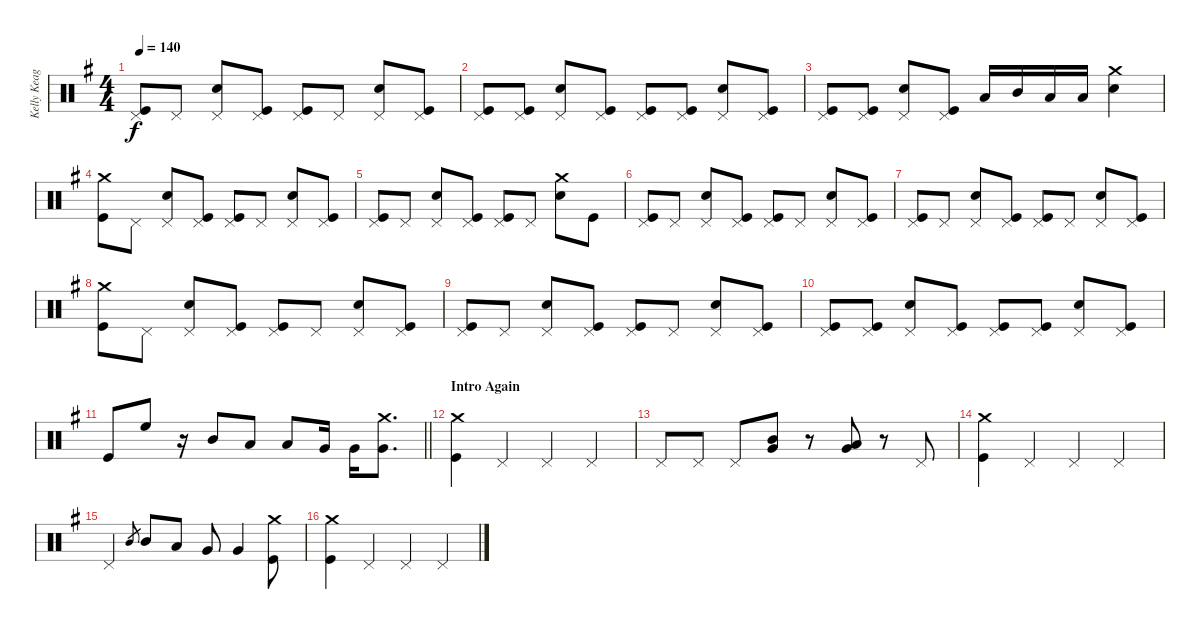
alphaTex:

\track ("Kelly Keagy" "Kelly Keag") {instrument percussion}
\staff {score}
\articulation defaults
\ts (4 4)
\tempo 140
\clef neutral
\ks g
("Pedal Hi-Hat (hit)" "Kick (hit)").8{dy f} "Pedal Hi-Hat (hit)".8 ("Pedal Hi-Hat (hit)" "Snare (hit) 2").8 ("Pedal Hi-Hat (hit)" "Kick (hit)").8 ("Pedal Hi-Hat (hit)" "Kick (hit)").8 "Pedal Hi-Hat (hit)".8 ("Pedal Hi-Hat (hit)" "Snare (hit) 2").8 ("Pedal Hi-Hat (hit)" "Kick (hit)").8 |
("Pedal Hi-Hat (hit)" "Kick (hit)").8 ("Pedal Hi-Hat (hit)" "Kick (hit)").8 ("Pedal Hi-Hat (hit)" "Snare (hit) 2").8 ("Pedal Hi-Hat (hit)" "Kick (hit)").8 ("Pedal Hi-Hat (hit)" "Kick (hit)").8 ("Pedal Hi-Hat (hit)" "Kick (hit)").8 ("Pedal Hi-Hat (hit)" "Snare (hit) 2").8 ("Pedal Hi-Hat (hit)" "Kick (hit)").8 |
("Pedal Hi-Hat (hit)" "Kick (hit)").8 ("Pedal Hi-Hat (hit)" "Kick (hit)").8 ("Pedal Hi-Hat (hit)" "Snare (hit) 2").8 ("Pedal Hi-Hat (hit)" "Kick (hit)").8 "Low Tom (hit)".16 "Mid Tom (hit)".16 "Low Tom (hit)".16 "Low Tom (hit)".16 ("Crash medium (hit)" "Snare (hit) 2").4 |
("Crash medium (hit)" "Kick (hit)").8 "Pedal Hi-Hat (hit)".8 ("Pedal Hi-Hat (hit)" "Snare (hit) 2").8 ("Pedal Hi-Hat (hit)" "Kick (hit)").8 ("Pedal Hi-Hat (hit)" "Kick (hit)").8 "Pedal Hi-Hat (hit)".8 ("Pedal Hi-Hat (hit)" "Snare (hit) 2").8 ("Pedal Hi-Hat (hit)" "Kick (hit)").8 |
("Pedal Hi-Hat (hit)" "Kick (hit)").8 "Pedal Hi-Hat (hit)".8 ("Pedal Hi-Hat (hit)" "Snare (hit) 2").8 ("Pedal Hi-Hat (hit)" "Kick (hit)").8 ("Pedal Hi-Hat (hit)" "Kick (hit)").8 "Pedal Hi-Hat (hit)".8 ("Crash medium (hit)" "Snare (hit) 2").8 "Kick (hit)".8 |
("Pedal Hi-Hat (hit)" "Kick (hit)").8 "Pedal Hi-Hat (hit)".8 ("Pedal Hi-Hat (hit)" "Snare (hit) 2").8 ("Pedal Hi-Hat (hit)" "Kick (hit)").8 ("Pedal Hi-Hat (hit)" "Kick (hit)").8 "Pedal Hi-Hat (hit)".8 ("Pedal Hi-Hat (hit)" "Snare (hit) 2").8 ("Pedal Hi-Hat (hit)" "Kick (hit)").8 |
("Pedal Hi-Hat (hit)" "Kick (hit)").8 "Pedal Hi-Hat (hit)".8 ("Pedal Hi-Hat (hit)" "Snare (hit) 2").8 ("Pedal Hi-Hat (hit)" "Kick (hit)").8 ("Pedal Hi-Hat (hit)" "Kick (hit)").8 "Pedal Hi-Hat (hit)".8 ("Pedal Hi-Hat (hit)" "Snare (hit) 2").8 ("Pedal Hi-Hat (hit)" "Kick (hit)").8 |
("Crash medium (hit)" "Kick (hit)").8 "Pedal Hi-Hat (hit)".8 ("Pedal Hi-Hat (hit)" "Snare (hit) 2").8 ("Pedal Hi-Hat (hit)" "Kick (hit)").8 ("Pedal Hi-Hat (hit)" "Kick (hit)").8 "Pedal Hi-Hat (hit)".8 ("Pedal Hi-Hat (hit)" "Snare (hit) 2").8 ("Pedal Hi-Hat (hit)" "Kick (hit)").8 |
("Pedal Hi-Hat (hit)" "Kick (hit)").8 "Pedal Hi-Hat (hit)".8 ("Pedal Hi-Hat (hit)" "Snare (hit) 2").8 ("Pedal Hi-Hat (hit)" "Kick (hit)").8 ("Pedal Hi-Hat (hit)" "Kick (hit)").8 "Pedal Hi-Hat (hit)".8 ("Pedal Hi-Hat (hit)" "Snare (hit) 2").8 ("Pedal Hi-Hat (hit)" "Kick (hit)").8 |
("Pedal Hi-Hat (hit)" "Kick (hit)").8 ("Pedal Hi-Hat (hit)" "Kick (hit)").8 ("Pedal Hi-Hat (hit)" "Snare (hit) 2").8 ("Pedal Hi-Hat (hit)" "Kick (hit)").8 ("Pedal Hi-Hat (hit)" "Kick (hit)").8 ("Pedal Hi-Hat (hit)" "Kick (hit)").8 ("Pedal Hi-Hat (hit)" "Snare (hit) 2").8 ("Pedal Hi-Hat (hit)" "Kick (hit)").8 |
\barLineRight lightlight "Kick (hit)".8 "High Floor Tom (hit)".8
r.16 "Mid Tom (hit)".8 "Low Tom (hit)".8 "Low Tom (hit)".8 "Very Low Tom (hit)".16 "Very Low Tom (hit)".16 ("Crash medium (hit)" "Very Low Tom (hit)").8{d} |
\section ("" "Intro Again")
("Crash medium (hit)" "Kick (hit)").4 "Pedal Hi-Hat (hit)".4 "Pedal Hi-Hat (hit)".4 "Pedal Hi-Hat (hit)".4 |
"Pedal Hi-Hat (hit)".8 "Pedal Hi-Hat (hit)".8 "Pedal Hi-Hat (hit)".8 ("Mid Tom (hit)" "Very Low Tom (hit)").8 r.8 ("Low Tom (hit)" "Very Low Tom (hit)").8 r.8 "Pedal Hi-Hat (hit)".8 |
("Crash medium (hit)" "Kick (hit)").4 "Pedal Hi-Hat (hit)".4 "Pedal Hi-Hat (hit)".4 "Pedal Hi-Hat (hit)".4 |
"Pedal Hi-Hat (hit)".4 "Mid Tom (hit)".8{gr} "Mid Tom (hit)".8 "Low Tom (hit)".8 "Very Low Tom (hit)".8 "Very Low Tom (hit)".4 ("Crash medium (hit)" "Kick (hit)").8 |
("Crash medium (hit)" "Kick (hit)").4 "Pedal Hi-Hat (hit)".4 "Pedal Hi-Hat (hit)".4 "Pedal Hi-Hat (hit)".4
